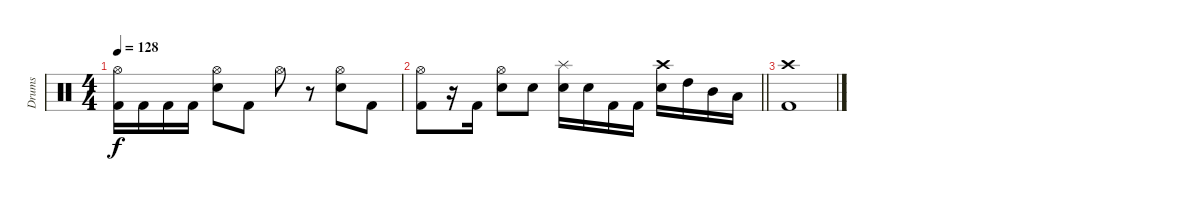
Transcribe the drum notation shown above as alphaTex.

\track ("Drums" "Drums") {instrument percussion}
\staff {score}
\articulation defaults
\ts (4 4)
\tempo 128
\clef neutral
\ks c
("Hi-Hat (open)" "Kick (hit) 2").16{dy f} "Kick (hit) 2".16 "Kick (hit) 2".16 "Kick (hit) 2".16 ("Hi-Hat (open)" "Electric Snare (hit)").8 "Kick (hit) 2".8 "Hi-Hat (open)".8 r.8 ("Hi-Hat (open)" "Electric Snare (hit)").8 "Kick (hit) 2".8 |
\barLineRight lightlight
("Hi-Hat (open)" "Kick (hit) 2").8 r.16 "Kick (hit) 2".16 ("Hi-Hat (open)" "Electric Snare (hit)").8 "Electric Snare (hit)".8 ("Splash (hit)" "Electric Snare (hit)").16 "Electric Snare (hit)".16 "Kick (hit) 2".16 "Kick (hit) 2".16 ("Crash high (hit)" "Electric Snare (hit)").16 "High Tom (hit)".16 "Mid Tom (hit)".16 "Low Tom (hit)".16 |
\section ("" "")
("Crash high (hit)" "Kick (hit) 2").1
